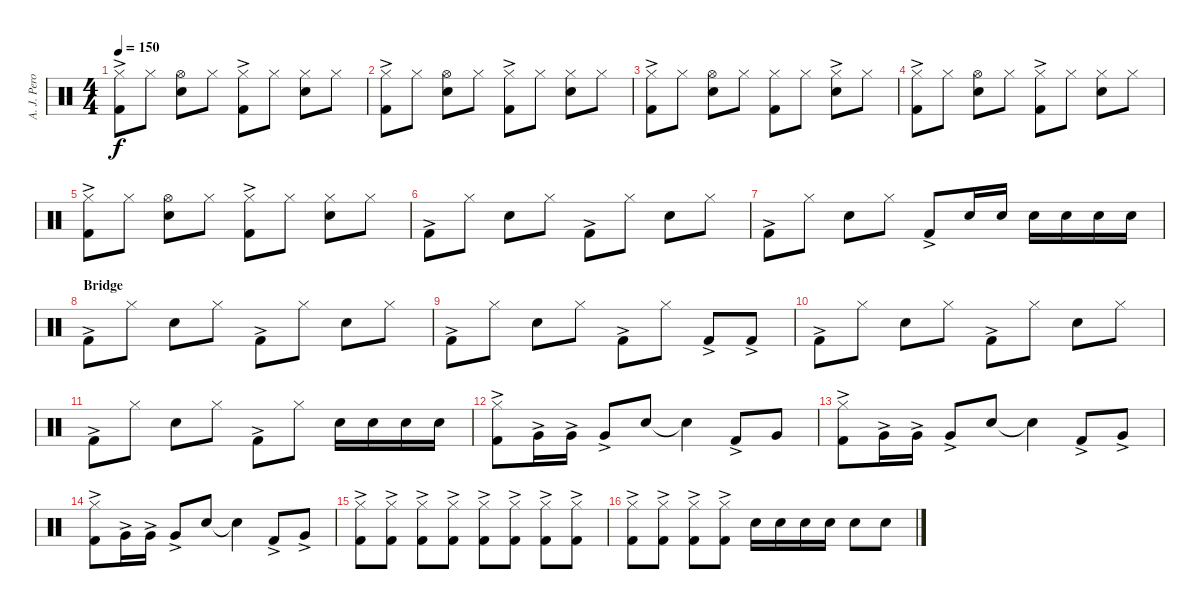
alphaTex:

\track ("A. J. Pero - Drums" "A. J. Pero") {instrument percussion}
\staff {score}
\articulation defaults
\ts (4 4)
\tempo 150
\clef neutral
\ks c
("Hi-Hat (closed)" "Kick (hit) 2"{ac}).8{dy f} "Hi-Hat (closed)".8 ("Hi-Hat (open)" "Electric Snare (hit)").8 "Hi-Hat (closed)".8 ("Hi-Hat (closed)" "Kick (hit) 2"{ac}).8 "Hi-Hat (closed)".8 ("Hi-Hat (closed)" "Electric Snare (hit)").8 "Hi-Hat (closed)".8 |
("Hi-Hat (closed)" "Kick (hit) 2"{ac}).8 "Hi-Hat (closed)".8 ("Hi-Hat (open)" "Electric Snare (hit)").8 "Hi-Hat (closed)".8 ("Hi-Hat (closed)" "Kick (hit) 2"{ac}).8 "Hi-Hat (closed)".8 ("Hi-Hat (closed)" "Electric Snare (hit)").8 "Hi-Hat (closed)".8 |
("Hi-Hat (closed)" "Kick (hit) 2"{ac}).8 "Hi-Hat (closed)".8 ("Hi-Hat (open)" "Electric Snare (hit)").8 "Hi-Hat (closed)".8 ("Hi-Hat (closed)" "Kick (hit) 2").8 "Hi-Hat (closed)".8 ("Hi-Hat (closed)" "Electric Snare (hit)"{ac}).8 "Hi-Hat (closed)".8 |
("Hi-Hat (closed)" "Kick (hit) 2"{ac}).8 "Hi-Hat (closed)".8 ("Hi-Hat (open)" "Electric Snare (hit)").8 "Hi-Hat (closed)".8 ("Hi-Hat (closed)" "Kick (hit) 2"{ac}).8 "Hi-Hat (closed)".8 ("Hi-Hat (closed)" "Electric Snare (hit)").8 "Hi-Hat (closed)".8 |
("Hi-Hat (closed)" "Kick (hit) 2"{ac}).8 "Hi-Hat (closed)".8 ("Hi-Hat (open)" "Electric Snare (hit)").8 "Hi-Hat (closed)".8 ("Hi-Hat (closed)" "Kick (hit) 2"{ac}).8 "Hi-Hat (closed)".8 ("Hi-Hat (closed)" "Electric Snare (hit)").8 "Hi-Hat (closed)".8 |
"Kick (hit) 2"{ac}.8 "Hi-Hat (closed)".8 "Electric Snare (hit)".8 "Hi-Hat (closed)".8 "Kick (hit) 2"{ac}.8 "Hi-Hat (closed)".8 "Electric Snare (hit)".8 "Hi-Hat (closed)".8 |
"Kick (hit) 2"{ac}.8 "Hi-Hat (closed)".8 "Electric Snare (hit)".8 "Hi-Hat (closed)".8 "Kick (hit) 2"{ac}.8 "Electric Snare (hit)".16 "Electric Snare (hit)".16 "Electric Snare (hit)".16 "Electric Snare (hit)".16 "Electric Snare (hit)".16 "Electric Snare (hit)".16 |
\section ("" "Bridge")
"Kick (hit) 2"{ac}.8 "Hi-Hat (closed)".8 "Electric Snare (hit)".8 "Hi-Hat (closed)".8 "Kick (hit) 2"{ac}.8 "Hi-Hat (closed)".8 "Electric Snare (hit)".8 "Hi-Hat (closed)".8 |
"Kick (hit) 2"{ac}.8 "Hi-Hat (closed)".8 "Electric Snare (hit)".8 "Hi-Hat (closed)".8 "Kick (hit) 2"{ac}.8 "Hi-Hat (closed)".8 "Kick (hit) 2"{ac}.8 "Kick (hit) 2"{ac}.8 |
"Kick (hit) 2"{ac}.8 "Hi-Hat (closed)".8 "Electric Snare (hit)".8 "Hi-Hat (closed)".8 "Kick (hit) 2"{ac}.8 "Hi-Hat (closed)".8 "Electric Snare (hit)".8 "Hi-Hat (closed)".8 |
"Kick (hit) 2"{ac}.8 "Hi-Hat (closed)".8 "Electric Snare (hit)".8 "Hi-Hat (closed)".8 "Kick (hit) 2"{ac}.8 "Hi-Hat (closed)".8 "Electric Snare (hit)".16 "Electric Snare (hit)".16 "Electric Snare (hit)".16 "Electric Snare (hit)".16 |
("Hi-Hat (closed)" "Kick (hit) 2"{ac}).8 "Very Low Tom (hit)"{ac}.16 "Very Low Tom (hit)"{ac}.16 "Very Low Tom (hit)"{ac}.8 "Electric Snare (hit)".8 "Electric Snare (hit)"{t}.4 "Kick (hit) 2"{ac}.8 "Very Low Tom (hit)".8 |
("Hi-Hat (closed)" "Kick (hit) 2"{ac}).8 "Very Low Tom (hit)"{ac}.16 "Very Low Tom (hit)"{ac}.16 "Very Low Tom (hit)"{ac}.8 "Electric Snare (hit)".8 "Electric Snare (hit)"{t}.4 "Kick (hit) 2"{ac}.8 "Very Low Tom (hit)"{ac}.8 |
("Hi-Hat (closed)" "Kick (hit) 2"{ac}).8 "Very Low Tom (hit)"{ac}.16 "Very Low Tom (hit)"{ac}.16 "Very Low Tom (hit)"{ac}.8 "Electric Snare (hit)".8 "Electric Snare (hit)"{t}.4 "Kick (hit) 2"{ac}.8 "Very Low Tom (hit)"{ac}.8 |
("Hi-Hat (closed)" "Kick (hit) 2"{ac}).8 ("Hi-Hat (closed)" "Kick (hit) 2"{ac}).8 ("Hi-Hat (closed)" "Kick (hit) 2"{ac}).8 ("Hi-Hat (closed)" "Kick (hit) 2"{ac}).8 ("Hi-Hat (closed)" "Kick (hit) 2"{ac}).8 ("Hi-Hat (closed)" "Kick (hit) 2"{ac}).8 ("Hi-Hat (closed)" "Kick (hit) 2"{ac}).8 ("Hi-Hat (closed)" "Kick (hit) 2"{ac}).8 |
("Hi-Hat (closed)" "Kick (hit) 2"{ac}).8 ("Hi-Hat (closed)" "Kick (hit) 2"{ac}).8 ("Hi-Hat (closed)" "Kick (hit) 2"{ac}).8 ("Hi-Hat (closed)" "Kick (hit) 2"{ac}).8 "Electric Snare (hit)".16 "Electric Snare (hit)".16 "Electric Snare (hit)".16 "Electric Snare (hit)".16 "Electric Snare (hit)".8 "Electric Snare (hit)".8
